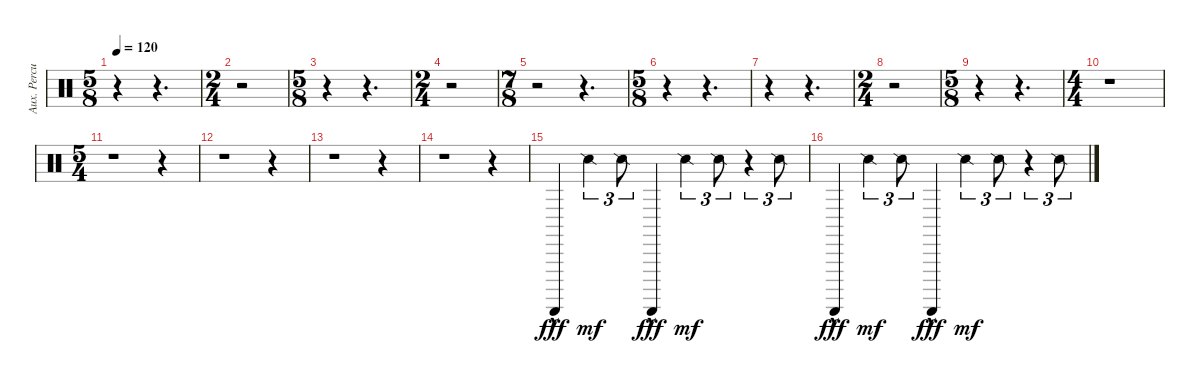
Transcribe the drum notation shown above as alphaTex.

\track ("Aux. Percussion" "Aux. Percu") {instrument percussion}
\staff {score}
\articulation defaults
\ts (5 8)
\tempo 120
\clef neutral
\ks c
r.4{dy p} r.4{d} |
\ts (2 4)
r.2 |
\ts (5 8)
r.4 r.4{d} |
\ts (2 4)
r.2 |
\ts (7 8)
r.2 r.4{d} |
\ts (5 8)
r.4 r.4{d} |
r.4 r.4{d} |
\ts (2 4)
r.2 |
\ts (5 8)
r.4 r.4{d} |
\ts (4 4)
r.1 |
\ts (5 4)
r.1 r.4 |
r.1 r.4 |
r.1 r.4 |
r.1 r.4 |
"Guiro (scrap-return)"{hac}.4{dy fff} "Snare (side stick) 2".4{tu (3 2) dy mf} "Snare (side stick) 2".8{tu (3 2)} "Guiro (scrap-return)"{hac}.4{dy fff} "Snare (side stick) 2".4{tu (3 2) dy mf} "Snare (side stick) 2".8{tu (3 2)} r.4{tu (3 2)} "Snare (side stick) 2".8{tu (3 2)} |
"Guiro (scrap-return)"{hac}.4{dy fff} "Snare (side stick) 2".4{tu (3 2) dy mf} "Snare (side stick) 2".8{tu (3 2)} "Guiro (scrap-return)"{hac}.4{dy fff} "Snare (side stick) 2".4{tu (3 2) dy mf} "Snare (side stick) 2".8{tu (3 2)} r.4{tu (3 2)} "Snare (side stick) 2".8{tu (3 2)}
